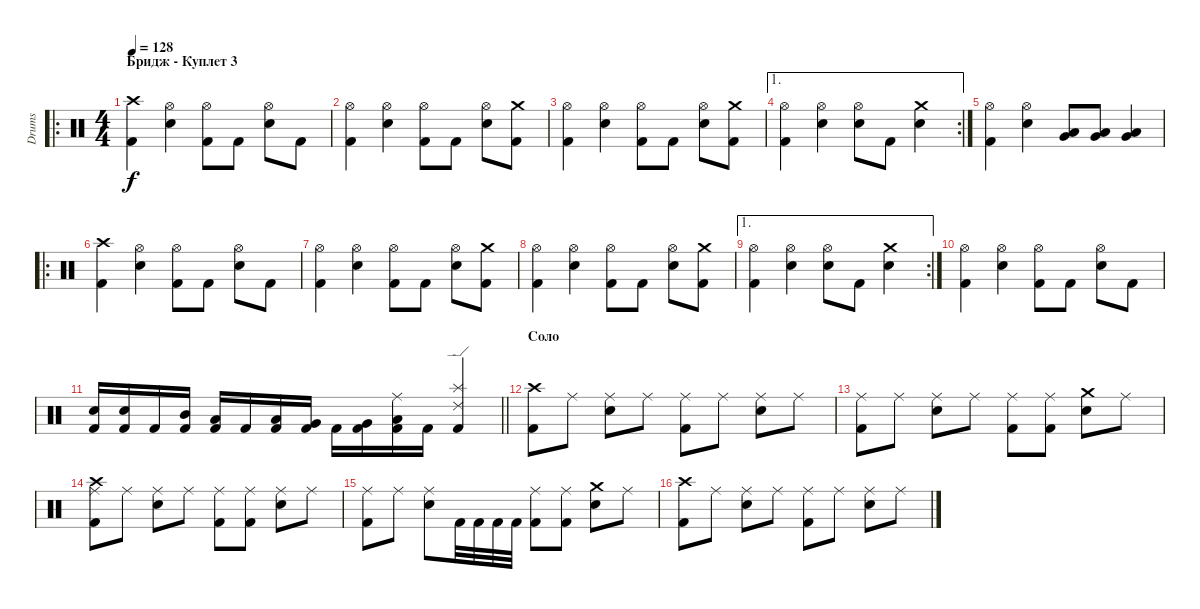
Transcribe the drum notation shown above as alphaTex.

\track ("Drums" "Drums") {instrument percussion}
\staff {score}
\articulation defaults
\ro
\ts (4 4)
\section ("" "Бридж - Куплет 3")
\tempo 128
\clef neutral
\ks c
("Kick (hit) 2" "Crash high (hit)").4{dy f} ("Electric Snare (hit)" "Hi-Hat (open)").4 ("Kick (hit) 2" "Hi-Hat (open)").8 "Kick (hit) 2".8 ("Electric Snare (hit)" "Hi-Hat (open)").8 "Kick (hit) 2".8 |
("Kick (hit) 2" "Hi-Hat (open)").4 ("Electric Snare (hit)" "Hi-Hat (open)").4 ("Kick (hit) 2" "Hi-Hat (open)").8 "Kick (hit) 2".8 ("Electric Snare (hit)" "Hi-Hat (open)").8 ("Kick (hit) 2" "Crash medium (hit)").8 |
("Kick (hit) 2" "Hi-Hat (open)").4 ("Electric Snare (hit)" "Hi-Hat (open)").4 ("Kick (hit) 2" "Hi-Hat (open)").8 "Kick (hit) 2".8 ("Electric Snare (hit)" "Hi-Hat (open)").8 ("Kick (hit) 2" "Crash medium (hit)").8 |
\ae 1
\rc 2
("Kick (hit) 2" "Hi-Hat (open)").4 ("Electric Snare (hit)" "Hi-Hat (open)").4 ("Electric Snare (hit)" "Hi-Hat (open)").8 "Kick (hit) 2".8 ("Electric Snare (hit)" "Crash medium (hit)").4 |
("Kick (hit) 2" "Hi-Hat (open)").4 ("Electric Snare (hit)" "Hi-Hat (open)").4 ("Low Tom (hit)" "Very Low Tom (hit)").8 ("Low Tom (hit)" "Very Low Tom (hit)").8 ("Low Tom (hit)" "Very Low Tom (hit)").4 |
\ro
("Kick (hit) 2" "Crash high (hit)").4 ("Electric Snare (hit)" "Hi-Hat (open)").4 ("Kick (hit) 2" "Hi-Hat (open)").8 "Kick (hit) 2".8 ("Electric Snare (hit)" "Hi-Hat (open)").8 "Kick (hit) 2".8 |
("Kick (hit) 2" "Hi-Hat (open)").4 ("Electric Snare (hit)" "Hi-Hat (open)").4 ("Kick (hit) 2" "Hi-Hat (open)").8 "Kick (hit) 2".8 ("Electric Snare (hit)" "Hi-Hat (open)").8 ("Kick (hit) 2" "Crash medium (hit)").8 |
("Kick (hit) 2" "Hi-Hat (open)").4 ("Electric Snare (hit)" "Hi-Hat (open)").4 ("Kick (hit) 2" "Hi-Hat (open)").8 "Kick (hit) 2".8 ("Electric Snare (hit)" "Hi-Hat (open)").8 ("Kick (hit) 2" "Crash medium (hit)").8 |
\ae 1
\rc 2
("Kick (hit) 2" "Hi-Hat (open)").4 ("Electric Snare (hit)" "Hi-Hat (open)").4 ("Electric Snare (hit)" "Hi-Hat (open)").8 "Kick (hit) 2".8 ("Electric Snare (hit)" "Crash medium (hit)").4 |
("Kick (hit) 2" "Hi-Hat (open)").4 ("Electric Snare (hit)" "Hi-Hat (open)").4 ("Kick (hit) 2" "Hi-Hat (open)").8 "Kick (hit) 2".8 ("Electric Snare (hit)" "Hi-Hat (open)").8 "Kick (hit) 2".8 |
\barLineRight lightlight
("Kick (hit) 2" "Electric Snare (hit)").16 ("Kick (hit) 2" "Electric Snare (hit)").16 "Kick (hit) 2".16 ("Kick (hit) 2" "Mid Tom (hit)").16 ("Kick (hit) 2" "Low Tom (hit)").16 "Kick (hit) 2".16 ("Kick (hit) 2" "Low Tom (hit)").16 ("Kick (hit) 2" "Very Low Tom (hit)").16 "Kick (hit) 2".16 ("Kick (hit) 2" "Very Low Tom (hit)").16 ("Kick (hit) 2" "Low Floor Tom (hit)" "Ride (middle)").16 "Kick (hit) 2".16 ("Kick (hit) 2" "Splash (hit)" "Ride (edge) 2").4 |
\section ("" "Соло")
("Kick (hit) 2" "Crash high (hit)").8 "Ride (middle)".8 ("Electric Snare (hit)" "Ride (middle)").8 "Ride (middle)".8 ("Kick (hit) 2" "Ride (middle)").8 "Ride (middle)".8 ("Electric Snare (hit)" "Ride (middle)").8 "Ride (middle)".8 |
("Kick (hit) 2" "Ride (middle)").8 "Ride (middle)".8 ("Electric Snare (hit)" "Ride (middle)").8 "Ride (middle)".8 ("Kick (hit) 2" "Ride (middle)").8 ("Kick (hit) 2" "Ride (middle)").8 ("Electric Snare (hit)" "Crash medium (hit)").8 "Ride (middle)".8 |
("Kick (hit) 2" "Ride (middle)" "Crash high (hit)").8 "Ride (middle)".8 ("Electric Snare (hit)" "Ride (middle)").8 "Ride (middle)".8 ("Kick (hit) 2" "Ride (middle)").8 ("Kick (hit) 2" "Ride (middle)").8 ("Electric Snare (hit)" "Ride (middle)").8 "Ride (middle)".8 |
("Kick (hit) 2" "Ride (middle)").8 "Ride (middle)".8 ("Electric Snare (hit)" "Ride (middle)").8 "Kick (hit) 2".32 "Kick (hit) 2".32 "Kick (hit) 2".32 "Kick (hit) 2".32 ("Ride (middle)" "Kick (hit) 2").8 ("Ride (middle)" "Kick (hit) 2").8 ("Crash medium (hit)" "Electric Snare (hit)").8 "Ride (middle)".8 |
("Kick (hit) 2" "Crash high (hit)").8 "Ride (middle)".8 ("Electric Snare (hit)" "Ride (middle)").8 "Ride (middle)".8 ("Kick (hit) 2" "Ride (middle)").8 "Ride (middle)".8 ("Electric Snare (hit)" "Ride (middle)").8 "Ride (middle)".8
